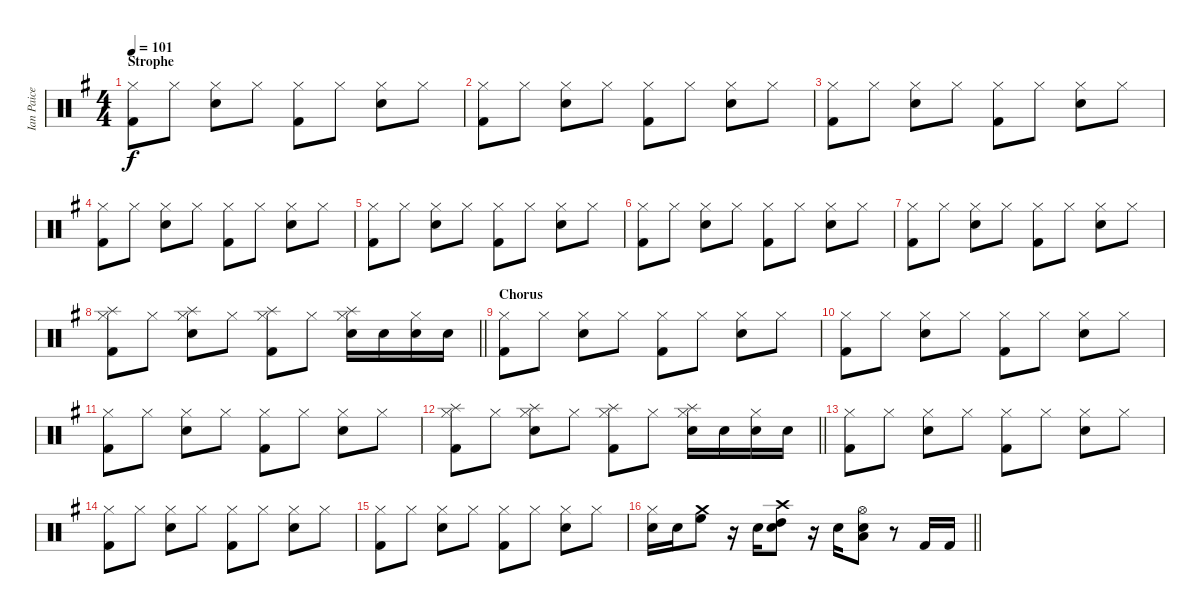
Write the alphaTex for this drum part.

\track ("Ian Paice" "Ian Paice") {instrument percussion}
\staff {score}
\articulation defaults
\ts (4 4)
\section ("" "Strophe")
\tempo 101
\clef neutral
\ks g
("Hi-Hat (closed)" "Kick (hit) 2").8{dy f} "Hi-Hat (closed)".8 ("Hi-Hat (closed)" "Snare (hit) 2").8 "Hi-Hat (closed)".8 ("Hi-Hat (closed)" "Kick (hit) 2").8 "Hi-Hat (closed)".8 ("Hi-Hat (closed)" "Snare (hit) 2").8 "Hi-Hat (closed)".8 |
("Hi-Hat (closed)" "Kick (hit) 2").8 "Hi-Hat (closed)".8 ("Hi-Hat (closed)" "Snare (hit) 2").8 "Hi-Hat (closed)".8 ("Hi-Hat (closed)" "Kick (hit) 2").8 "Hi-Hat (closed)".8 ("Hi-Hat (closed)" "Snare (hit) 2").8 "Hi-Hat (closed)".8 |
("Hi-Hat (closed)" "Kick (hit) 2").8 "Hi-Hat (closed)".8 ("Hi-Hat (closed)" "Snare (hit) 2").8 "Hi-Hat (closed)".8 ("Hi-Hat (closed)" "Kick (hit) 2").8 "Hi-Hat (closed)".8 ("Hi-Hat (closed)" "Snare (hit) 2").8 "Hi-Hat (closed)".8 |
("Hi-Hat (closed)" "Kick (hit) 2").8 "Hi-Hat (closed)".8 ("Hi-Hat (closed)" "Snare (hit) 2").8 "Hi-Hat (closed)".8 ("Hi-Hat (closed)" "Kick (hit) 2").8 "Hi-Hat (closed)".8 ("Hi-Hat (closed)" "Snare (hit) 2").8 "Hi-Hat (closed)".8 |
("Hi-Hat (closed)" "Kick (hit) 2").8 "Hi-Hat (closed)".8 ("Hi-Hat (closed)" "Snare (hit) 2").8 "Hi-Hat (closed)".8 ("Hi-Hat (closed)" "Kick (hit) 2").8 "Hi-Hat (closed)".8 ("Hi-Hat (closed)" "Snare (hit) 2").8 "Hi-Hat (closed)".8 |
("Hi-Hat (closed)" "Kick (hit) 2").8 "Hi-Hat (closed)".8 ("Hi-Hat (closed)" "Snare (hit) 2").8 "Hi-Hat (closed)".8 ("Hi-Hat (closed)" "Kick (hit) 2").8 "Hi-Hat (closed)".8 ("Hi-Hat (closed)" "Snare (hit) 2").8 "Hi-Hat (closed)".8 |
("Hi-Hat (closed)" "Kick (hit) 2").8 "Hi-Hat (closed)".8 ("Hi-Hat (closed)" "Snare (hit) 2").8 "Hi-Hat (closed)".8 ("Hi-Hat (closed)" "Kick (hit) 2").8 "Hi-Hat (closed)".8 ("Hi-Hat (closed)" "Snare (hit) 2").8 "Hi-Hat (closed)".8 |
\barLineRight lightlight
("Splash (hit)" "Hi-Hat (closed)" "Kick (hit) 2").8 "Hi-Hat (closed)".8 ("Splash (hit)" "Hi-Hat (closed)" "Snare (hit) 2").8 "Hi-Hat (closed)".8 ("Splash (hit)" "Hi-Hat (closed)" "Kick (hit) 2").8 "Hi-Hat (closed)".8 ("Splash (hit)" "Hi-Hat (closed)" "Snare (hit) 2").16 "Snare (hit) 2".16 ("Hi-Hat (closed)" "Snare (hit) 2").16 "Snare (hit) 2".16 |
\section ("" "Chorus")
("Hi-Hat (closed)" "Kick (hit) 2").8 "Hi-Hat (closed)".8 ("Hi-Hat (closed)" "Snare (hit) 2").8 "Hi-Hat (closed)".8 ("Hi-Hat (closed)" "Kick (hit) 2").8 "Hi-Hat (closed)".8 ("Hi-Hat (closed)" "Snare (hit) 2").8 "Hi-Hat (closed)".8 |
("Hi-Hat (closed)" "Kick (hit) 2").8 "Hi-Hat (closed)".8 ("Hi-Hat (closed)" "Snare (hit) 2").8 "Hi-Hat (closed)".8 ("Hi-Hat (closed)" "Kick (hit) 2").8 "Hi-Hat (closed)".8 ("Hi-Hat (closed)" "Snare (hit) 2").8 "Hi-Hat (closed)".8 |
("Hi-Hat (closed)" "Kick (hit) 2").8 "Hi-Hat (closed)".8 ("Hi-Hat (closed)" "Snare (hit) 2").8 "Hi-Hat (closed)".8 ("Hi-Hat (closed)" "Kick (hit) 2").8 "Hi-Hat (closed)".8 ("Hi-Hat (closed)" "Snare (hit) 2").8 "Hi-Hat (closed)".8 |
\barLineRight lightlight
("Splash (hit)" "Hi-Hat (closed)" "Kick (hit) 2").8 "Hi-Hat (closed)".8 ("Splash (hit)" "Hi-Hat (closed)" "Snare (hit) 2").8 "Hi-Hat (closed)".8 ("Splash (hit)" "Hi-Hat (closed)" "Kick (hit) 2").8 "Hi-Hat (closed)".8 ("Splash (hit)" "Hi-Hat (closed)" "Snare (hit) 2").16 "Snare (hit) 2".16 ("Hi-Hat (closed)" "Snare (hit) 2").16 "Snare (hit) 2".16 |
("Hi-Hat (closed)" "Kick (hit) 2").8 "Hi-Hat (closed)".8 ("Hi-Hat (closed)" "Snare (hit) 2").8 "Hi-Hat (closed)".8 ("Hi-Hat (closed)" "Kick (hit) 2").8 "Hi-Hat (closed)".8 ("Hi-Hat (closed)" "Snare (hit) 2").8 "Hi-Hat (closed)".8 |
("Hi-Hat (closed)" "Kick (hit) 2").8 "Hi-Hat (closed)".8 ("Hi-Hat (closed)" "Snare (hit) 2").8 "Hi-Hat (closed)".8 ("Hi-Hat (closed)" "Kick (hit) 2").8 "Hi-Hat (closed)".8 ("Hi-Hat (closed)" "Snare (hit) 2").8 "Hi-Hat (closed)".8 |
("Hi-Hat (closed)" "Kick (hit) 2").8 "Hi-Hat (closed)".8 ("Hi-Hat (closed)" "Snare (hit) 2").8 "Hi-Hat (closed)".8 ("Hi-Hat (closed)" "Kick (hit) 2").8 "Hi-Hat (closed)".8 ("Hi-Hat (closed)" "Snare (hit) 2").8 "Hi-Hat (closed)".8 |
\barLineRight lightlight
("Snare (hit) 2" "Hi-Hat (closed)").16 "Snare (hit) 2".16 ("Crash medium (hit)" "High Floor Tom (hit)").8 r.16 "Snare (hit) 2".16 ("Crash high (hit)" "High Tom (hit)" "Snare (hit) 2").8 r.16 "Snare (hit) 2".16 ("Hi-Hat (open)" "Low Tom (hit)" "Snare (hit) 2").8 r.8 "Kick (hit) 2".16 "Kick (hit) 2".16
